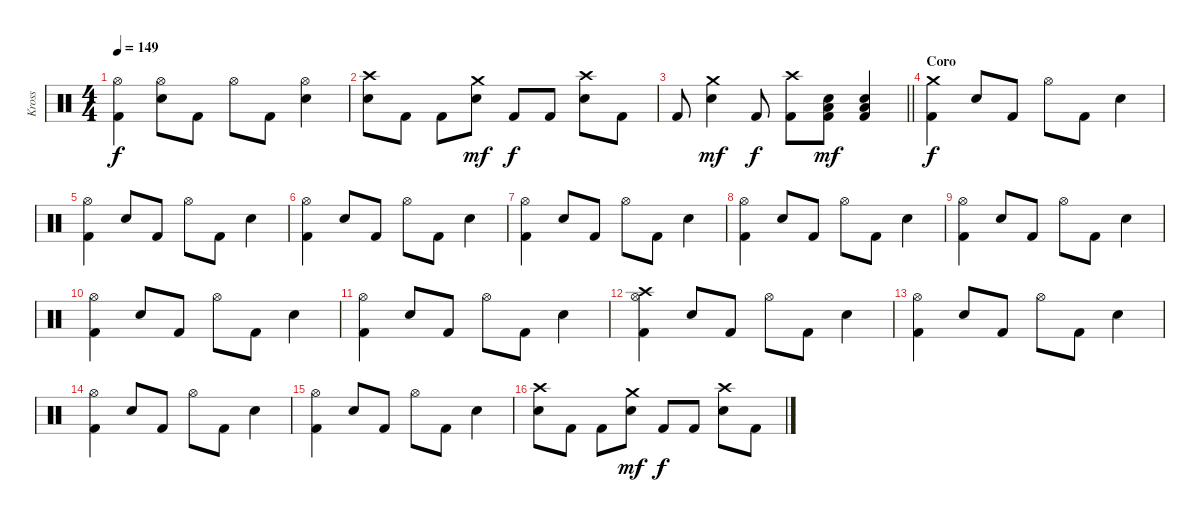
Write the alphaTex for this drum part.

\track ("Kross" "Kross") {instrument percussion}
\staff {score}
\articulation defaults
\ts (4 4)
\tempo 149
\clef neutral
\ks c
("Hi-Hat (open)" "Kick (hit) 2").4{dy f} ("Hi-Hat (open)" "Electric Snare (hit)").8 "Kick (hit) 2".8 "Hi-Hat (open)".8 "Kick (hit) 2".8 ("Hi-Hat (open)" "Electric Snare (hit)").4 |
("Crash high (hit)" "Electric Snare (hit)").8 "Kick (hit) 2".8 "Kick (hit) 2".8 ("Crash medium (hit)" "Electric Snare (hit)").8{dy mf} "Kick (hit) 2".8{dy f} "Kick (hit) 2".8 ("Crash high (hit)" "Electric Snare (hit)").8 "Kick (hit) 2".8 |
\barLineRight lightlight "Kick (hit) 2".8
("Crash medium (hit)" "Electric Snare (hit)").4{dy mf} "Kick (hit) 2".8{dy f} ("Crash high (hit)" "Kick (hit) 2").8 ("Low Floor Tom (hit)" "Electric Snare (hit)" "Kick (hit) 2").8{dy mf} ("Low Floor Tom (hit)" "Electric Snare (hit)" "Kick (hit) 2").4 |
\section ("" "Coro")
("Crash medium (hit)" "Kick (hit) 2").4{dy f} "Electric Snare (hit)".8 "Kick (hit) 2".8 "Hi-Hat (open)".8 "Kick (hit) 2".8 "Electric Snare (hit)".4 |
("Hi-Hat (open)" "Kick (hit) 2").4 "Electric Snare (hit)".8 "Kick (hit) 2".8 "Hi-Hat (open)".8 "Kick (hit) 2".8 "Electric Snare (hit)".4 |
("Hi-Hat (open)" "Kick (hit) 2").4 "Electric Snare (hit)".8 "Kick (hit) 2".8 "Hi-Hat (open)".8 "Kick (hit) 2".8 "Electric Snare (hit)".4 |
("Hi-Hat (open)" "Kick (hit) 2").4 "Electric Snare (hit)".8 "Kick (hit) 2".8 "Hi-Hat (open)".8 "Kick (hit) 2".8 "Electric Snare (hit)".4 |
("Hi-Hat (open)" "Kick (hit) 2").4 "Electric Snare (hit)".8 "Kick (hit) 2".8 "Hi-Hat (open)".8 "Kick (hit) 2".8 "Electric Snare (hit)".4 |
("Hi-Hat (open)" "Kick (hit) 2").4 "Electric Snare (hit)".8 "Kick (hit) 2".8 "Hi-Hat (open)".8 "Kick (hit) 2".8 "Electric Snare (hit)".4 |
("Hi-Hat (open)" "Kick (hit) 2").4 "Electric Snare (hit)".8 "Kick (hit) 2".8 "Hi-Hat (open)".8 "Kick (hit) 2".8 "Electric Snare (hit)".4 |
("Hi-Hat (open)" "Kick (hit) 2").4 "Electric Snare (hit)".8 "Kick (hit) 2".8 "Hi-Hat (open)".8 "Kick (hit) 2".8 "Electric Snare (hit)".4 |
("Crash high (hit)" "Hi-Hat (open)" "Kick (hit) 2").4 "Electric Snare (hit)".8 "Kick (hit) 2".8 "Hi-Hat (open)".8 "Kick (hit) 2".8 "Electric Snare (hit)".4 |
("Hi-Hat (open)" "Kick (hit) 2").4 "Electric Snare (hit)".8 "Kick (hit) 2".8 "Hi-Hat (open)".8 "Kick (hit) 2".8 "Electric Snare (hit)".4 |
("Hi-Hat (open)" "Kick (hit) 2").4 "Electric Snare (hit)".8 "Kick (hit) 2".8 "Hi-Hat (open)".8 "Kick (hit) 2".8 "Electric Snare (hit)".4 |
("Hi-Hat (open)" "Kick (hit) 2").4 "Electric Snare (hit)".8 "Kick (hit) 2".8 "Hi-Hat (open)".8 "Kick (hit) 2".8 "Electric Snare (hit)".4 |
("Crash high (hit)" "Electric Snare (hit)").8 "Kick (hit) 2".8 "Kick (hit) 2".8 ("Crash medium (hit)" "Electric Snare (hit)").8{dy mf} "Kick (hit) 2".8{dy f} "Kick (hit) 2".8 ("Crash high (hit)" "Electric Snare (hit)").8 "Kick (hit) 2".8
